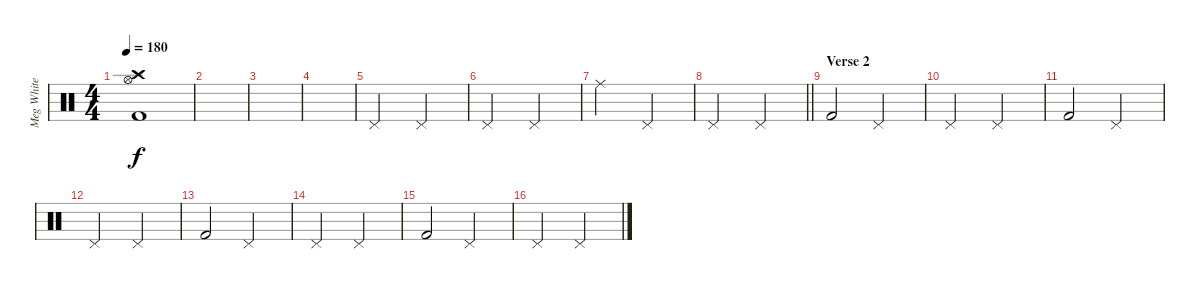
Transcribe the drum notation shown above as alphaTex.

\track ("Meg White" "Meg White") {instrument percussion}
\staff {score}
\articulation defaults
\ts (4 4)
\tempo 180
\clef neutral
\ks c
("Crash high (hit)" "Hi-Hat (open)" "Kick (hit) 2").1{dy f} |
|
|
|
"Pedal Hi-Hat (hit)".2 "Pedal Hi-Hat (hit)".2 |
"Pedal Hi-Hat (hit)".2 "Pedal Hi-Hat (hit)".2 |
"Ride (middle)".2 "Pedal Hi-Hat (hit)".2 |
\barLineRight lightlight "Pedal Hi-Hat (hit)".2 "Pedal Hi-Hat (hit)".2
|
\section ("" "Verse 2")
"Kick (hit) 2".2 "Pedal Hi-Hat (hit)".2 |
"Pedal Hi-Hat (hit)".2 "Pedal Hi-Hat (hit)".2 |
"Kick (hit) 2".2 "Pedal Hi-Hat (hit)".2 |
"Pedal Hi-Hat (hit)".2 "Pedal Hi-Hat (hit)".2 |
"Kick (hit) 2".2 "Pedal Hi-Hat (hit)".2 |
"Pedal Hi-Hat (hit)".2 "Pedal Hi-Hat (hit)".2 |
"Kick (hit) 2".2 "Pedal Hi-Hat (hit)".2 |
"Pedal Hi-Hat (hit)".2 "Pedal Hi-Hat (hit)".2
